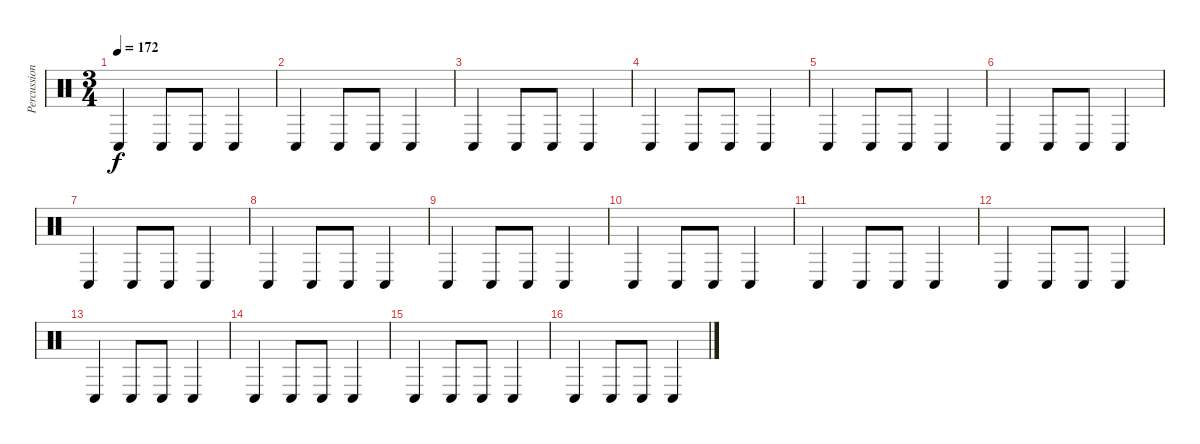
\track ("Percussion" "Percussion") {instrument percussion}
\staff {score}
\articulation defaults
\ts (3 4)
\tempo 172
\clef neutral
\ks c "Conga low (hit)".4{dy f} "Conga low (hit)".8 "Conga low (hit)".8 "Conga low (hit)".4
|
"Conga low (hit)".4 "Conga low (hit)".8 "Conga low (hit)".8 "Conga low (hit)".4 |
"Conga low (hit)".4 "Conga low (hit)".8 "Conga low (hit)".8 "Conga low (hit)".4 |
"Conga low (hit)".4 "Conga low (hit)".8 "Conga low (hit)".8 "Conga low (hit)".4 |
"Conga low (hit)".4 "Conga low (hit)".8 "Conga low (hit)".8 "Conga low (hit)".4 |
"Conga low (hit)".4 "Conga low (hit)".8 "Conga low (hit)".8 "Conga low (hit)".4 |
"Conga low (hit)".4 "Conga low (hit)".8 "Conga low (hit)".8 "Conga low (hit)".4 |
"Conga low (hit)".4 "Conga low (hit)".8 "Conga low (hit)".8 "Conga low (hit)".4 |
"Conga low (hit)".4 "Conga low (hit)".8 "Conga low (hit)".8 "Conga low (hit)".4 |
"Conga low (hit)".4 "Conga low (hit)".8 "Conga low (hit)".8 "Conga low (hit)".4 |
"Conga low (hit)".4 "Conga low (hit)".8 "Conga low (hit)".8 "Conga low (hit)".4 |
"Conga low (hit)".4 "Conga low (hit)".8 "Conga low (hit)".8 "Conga low (hit)".4 |
"Conga low (hit)".4 "Conga low (hit)".8 "Conga low (hit)".8 "Conga low (hit)".4 |
"Conga low (hit)".4 "Conga low (hit)".8 "Conga low (hit)".8 "Conga low (hit)".4 |
"Conga low (hit)".4 "Conga low (hit)".8 "Conga low (hit)".8 "Conga low (hit)".4 |
"Conga low (hit)".4 "Conga low (hit)".8 "Conga low (hit)".8 "Conga low (hit)".4
